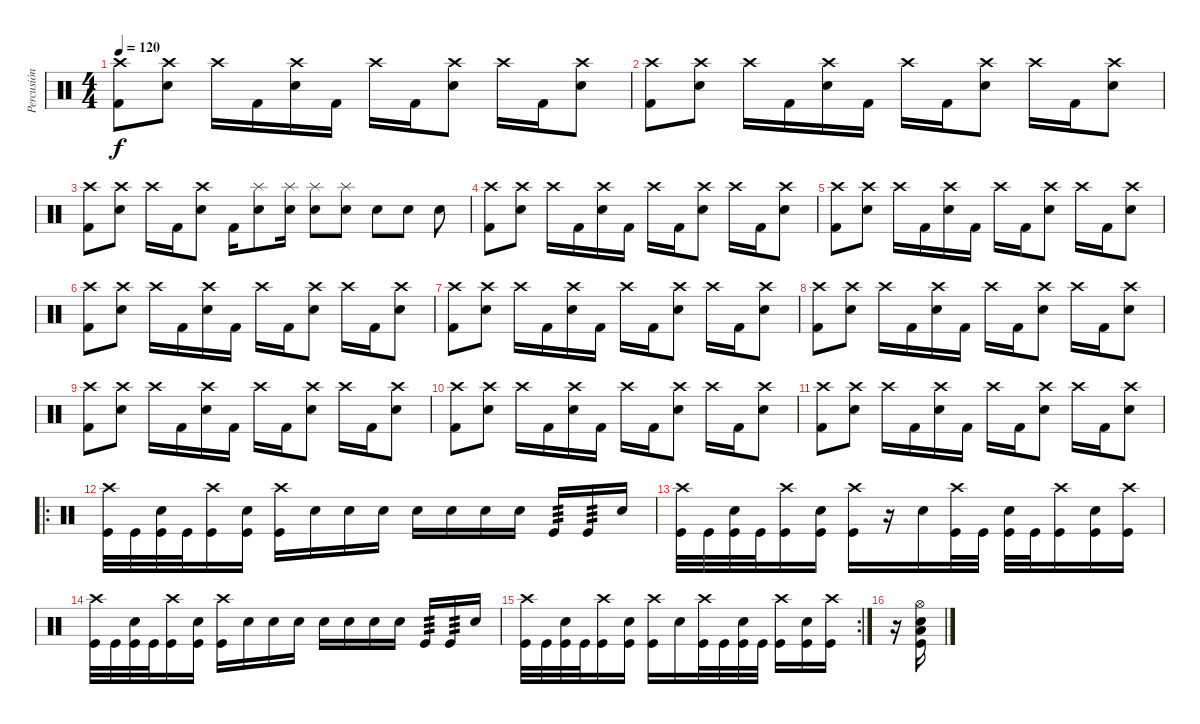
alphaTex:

\track ("Percusión" "Percusión") {instrument percussion}
\staff {score}
\articulation defaults
\ts (4 4)
\tempo 120
\clef neutral
\ks c
("Crash high (hit)" "Kick (hit) 2").8{dy f} ("Crash high (hit)" "Electric Snare (hit)").8 "Crash high (hit)".16 "Kick (hit) 2".16 ("Crash high (hit)" "Electric Snare (hit)").16 "Kick (hit) 2".16 "Crash high (hit)".16 "Kick (hit) 2".16 ("Crash high (hit)" "Electric Snare (hit)").8 "Crash high (hit)".16 "Kick (hit) 2".16 ("Crash high (hit)" "Electric Snare (hit)").8 |
("Crash high (hit)" "Kick (hit) 2").8 ("Crash high (hit)" "Electric Snare (hit)").8 "Crash high (hit)".16 "Kick (hit) 2".16 ("Crash high (hit)" "Electric Snare (hit)").16 "Kick (hit) 2".16 "Crash high (hit)".16 "Kick (hit) 2".16 ("Crash high (hit)" "Electric Snare (hit)").8 "Crash high (hit)".16 "Kick (hit) 2".16 ("Crash high (hit)" "Electric Snare (hit)").8 |
("Crash high (hit)" "Kick (hit) 2").8 ("Crash high (hit)" "Electric Snare (hit)").8 "Crash high (hit)".16 "Kick (hit) 2".16 ("Crash high (hit)" "Electric Snare (hit)").8 "Kick (hit) 2".16 ("Splash (hit)" "Electric Snare (hit)").8 ("Splash (hit)" "Electric Snare (hit)").16 ("Splash (hit)" "Electric Snare (hit)").8 ("Splash (hit)" "Electric Snare (hit)").8 "Electric Snare (hit)".8 "Electric Snare (hit)".8 "Electric Snare (hit)".8 |
("Crash high (hit)" "Kick (hit) 2").8 ("Crash high (hit)" "Electric Snare (hit)").8 "Crash high (hit)".16 "Kick (hit) 2".16 ("Crash high (hit)" "Electric Snare (hit)").16 "Kick (hit) 2".16 "Crash high (hit)".16 "Kick (hit) 2".16 ("Crash high (hit)" "Electric Snare (hit)").8 "Crash high (hit)".16 "Kick (hit) 2".16 ("Crash high (hit)" "Electric Snare (hit)").8 |
("Crash high (hit)" "Kick (hit) 2").8 ("Crash high (hit)" "Electric Snare (hit)").8 "Crash high (hit)".16 "Kick (hit) 2".16 ("Crash high (hit)" "Electric Snare (hit)").16 "Kick (hit) 2".16 "Crash high (hit)".16 "Kick (hit) 2".16 ("Crash high (hit)" "Electric Snare (hit)").8 "Crash high (hit)".16 "Kick (hit) 2".16 ("Crash high (hit)" "Electric Snare (hit)").8 |
("Crash high (hit)" "Kick (hit) 2").8 ("Crash high (hit)" "Electric Snare (hit)").8 "Crash high (hit)".16 "Kick (hit) 2".16 ("Crash high (hit)" "Electric Snare (hit)").16 "Kick (hit) 2".16 "Crash high (hit)".16 "Kick (hit) 2".16 ("Crash high (hit)" "Electric Snare (hit)").8 "Crash high (hit)".16 "Kick (hit) 2".16 ("Crash high (hit)" "Electric Snare (hit)").8 |
("Crash high (hit)" "Kick (hit) 2").8 ("Crash high (hit)" "Electric Snare (hit)").8 "Crash high (hit)".16 "Kick (hit) 2".16 ("Crash high (hit)" "Electric Snare (hit)").16 "Kick (hit) 2".16 "Crash high (hit)".16 "Kick (hit) 2".16 ("Crash high (hit)" "Electric Snare (hit)").8 "Crash high (hit)".16 "Kick (hit) 2".16 ("Crash high (hit)" "Electric Snare (hit)").8 |
("Crash high (hit)" "Kick (hit) 2").8 ("Crash high (hit)" "Electric Snare (hit)").8 "Crash high (hit)".16 "Kick (hit) 2".16 ("Crash high (hit)" "Electric Snare (hit)").16 "Kick (hit) 2".16 "Crash high (hit)".16 "Kick (hit) 2".16 ("Crash high (hit)" "Electric Snare (hit)").8 "Crash high (hit)".16 "Kick (hit) 2".16 ("Crash high (hit)" "Electric Snare (hit)").8 |
("Crash high (hit)" "Kick (hit) 2").8 ("Crash high (hit)" "Electric Snare (hit)").8 "Crash high (hit)".16 "Kick (hit) 2".16 ("Crash high (hit)" "Electric Snare (hit)").16 "Kick (hit) 2".16 "Crash high (hit)".16 "Kick (hit) 2".16 ("Crash high (hit)" "Electric Snare (hit)").8 "Crash high (hit)".16 "Kick (hit) 2".16 ("Crash high (hit)" "Electric Snare (hit)").8 |
("Crash high (hit)" "Kick (hit) 2").8 ("Crash high (hit)" "Electric Snare (hit)").8 "Crash high (hit)".16 "Kick (hit) 2".16 ("Crash high (hit)" "Electric Snare (hit)").16 "Kick (hit) 2".16 "Crash high (hit)".16 "Kick (hit) 2".16 ("Crash high (hit)" "Electric Snare (hit)").8 "Crash high (hit)".16 "Kick (hit) 2".16 ("Crash high (hit)" "Electric Snare (hit)").8 |
("Crash high (hit)" "Kick (hit) 2").8 ("Crash high (hit)" "Electric Snare (hit)").8 "Crash high (hit)".16 "Kick (hit) 2".16 ("Crash high (hit)" "Electric Snare (hit)").16 "Kick (hit) 2".16 "Crash high (hit)".16 "Kick (hit) 2".16 ("Crash high (hit)" "Electric Snare (hit)").8 "Crash high (hit)".16 "Kick (hit) 2".16 ("Crash high (hit)" "Electric Snare (hit)").8 |
\ro
("Crash high (hit)" "Kick (hit)").32 "Kick (hit)".32 ("Electric Snare (hit)" "Kick (hit)").32 "Kick (hit)".32 ("Crash high (hit)" "Kick (hit)").16 ("Electric Snare (hit)" "Kick (hit)").16 ("Crash high (hit)" "Kick (hit)").16 "Snare (hit)".16 "Snare (hit)".16 "Snare (hit)".16 "Snare (hit)".16 "Snare (hit)".16 "Snare (hit)".16 "Snare (hit)".16 "Kick (hit)".16{tp 3} "Kick (hit)".16{tp 3} "Electric Snare (hit)".16 |
("Crash high (hit)" "Kick (hit)").32 "Kick (hit)".32 ("Electric Snare (hit)" "Kick (hit)").32 "Kick (hit)".32 ("Crash high (hit)" "Kick (hit)").16 ("Electric Snare (hit)" "Kick (hit)").16 ("Crash high (hit)" "Kick (hit)").16 r.16 "Snare (hit)".16 ("Crash high (hit)" "Kick (hit)").32 "Kick (hit)".32 ("Electric Snare (hit)" "Kick (hit)").32 "Kick (hit)".32 ("Crash high (hit)" "Kick (hit)").16 ("Electric Snare (hit)" "Kick (hit)").16 ("Crash high (hit)" "Kick (hit)").16 |
("Crash high (hit)" "Kick (hit)").32 "Kick (hit)".32 ("Electric Snare (hit)" "Kick (hit)").32 "Kick (hit)".32 ("Crash high (hit)" "Kick (hit)").16 ("Electric Snare (hit)" "Kick (hit)").16 ("Crash high (hit)" "Kick (hit)").16 "Snare (hit)".16 "Snare (hit)".16 "Snare (hit)".16 "Snare (hit)".16 "Snare (hit)".16 "Snare (hit)".16 "Snare (hit)".16 "Kick (hit)".16{tp 3} "Kick (hit)".16{tp 3} "Electric Snare (hit)".16 |
\rc 2
("Crash high (hit)" "Kick (hit)").32 "Kick (hit)".32 ("Electric Snare (hit)" "Kick (hit)").32 "Kick (hit)".32 ("Crash high (hit)" "Kick (hit)").16 ("Electric Snare (hit)" "Kick (hit)").16 ("Crash high (hit)" "Kick (hit)").16 "Snare (hit)".16 ("Crash high (hit)" "Kick (hit)").32 "Kick (hit)".32 ("Electric Snare (hit)" "Kick (hit)").32 "Kick (hit)".32 ("Crash high (hit)" "Kick (hit)").16 ("Electric Snare (hit)" "Kick (hit)").16 ("Crash high (hit)" "Kick (hit)").16 |
r.16 ("Low Tom (hit)" "Hi-Hat (open)" "Electric Snare (hit)" "Kick (hit)").16
